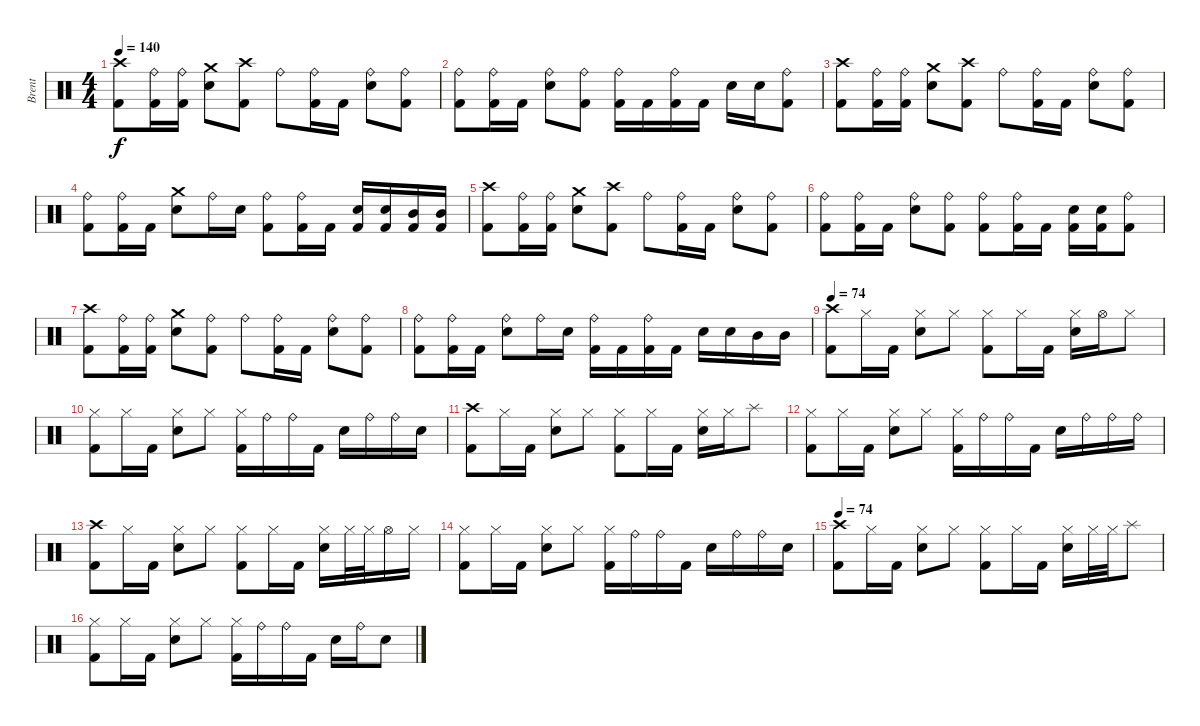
\track ("Brent" "Brent") {instrument percussion}
\staff {score}
\articulation defaults
\ts (4 4)
\tempo 140
\clef neutral
\ks c
("Crash high (hit)" "Kick (hit) 2").8{dy f} ("Ride (bell)" "Kick (hit) 2").16 ("Ride (bell)" "Kick (hit) 2").16 ("Crash medium (hit)" "Snare (hit) 2").8 ("Crash high (hit)" "Kick (hit) 2").8 "Ride (bell)".8 ("Ride (bell)" "Kick (hit) 2").16 "Kick (hit) 2".16 ("Ride (bell)" "Snare (hit) 2").8 ("Ride (bell)" "Kick (hit) 2").8 |
("Ride (bell)" "Kick (hit) 2").8 ("Ride (bell)" "Kick (hit) 2").16 "Kick (hit) 2".16 ("Ride (bell)" "Snare (hit) 2").8 ("Ride (bell)" "Kick (hit) 2").8 ("Ride (bell)" "Kick (hit) 2").16 "Kick (hit) 2".16 ("Ride (bell)" "Kick (hit) 2").16 "Kick (hit) 2".16 "Snare (hit) 2".16 "Snare (hit) 2".16 ("Ride (bell)" "Kick (hit) 2").8 |
("Crash high (hit)" "Kick (hit) 2").8 ("Ride (bell)" "Kick (hit) 2").16 ("Ride (bell)" "Kick (hit) 2").16 ("Crash medium (hit)" "Snare (hit) 2").8 ("Crash high (hit)" "Kick (hit) 2").8 "Ride (bell)".8 ("Ride (bell)" "Kick (hit) 2").16 "Kick (hit) 2".16 ("Ride (bell)" "Snare (hit) 2").8 ("Ride (bell)" "Kick (hit) 2").8 |
("Ride (bell)" "Kick (hit) 2").8 ("Ride (bell)" "Kick (hit) 2").16 "Kick (hit) 2".16 ("Crash medium (hit)" "Snare (hit) 2").8 "Ride (bell)".16 "Snare (hit) 2".16 ("Ride (bell)" "Kick (hit) 2").8 ("Ride (bell)" "Kick (hit) 2").16 "Kick (hit) 2".16 ("Snare (hit) 2" "Kick (hit) 2").16 ("Snare (hit) 2" "Kick (hit) 2").16 ("Mid Tom (hit)" "Kick (hit) 2").16 ("Mid Tom (hit)" "Kick (hit) 2").16 |
("Crash high (hit)" "Kick (hit) 2").8 ("Ride (bell)" "Kick (hit) 2").16 ("Ride (bell)" "Kick (hit) 2").16 ("Crash medium (hit)" "Snare (hit) 2").8 ("Crash high (hit)" "Kick (hit) 2").8 "Ride (bell)".8 ("Ride (bell)" "Kick (hit) 2").16 "Kick (hit) 2".16 ("Ride (bell)" "Snare (hit) 2").8 ("Ride (bell)" "Kick (hit) 2").8 |
("Ride (bell)" "Kick (hit) 2").8 ("Ride (bell)" "Kick (hit) 2").16 "Kick (hit) 2".16 ("Ride (bell)" "Snare (hit) 2").8 ("Ride (bell)" "Kick (hit) 2").8 ("Ride (bell)" "Kick (hit) 2").8 ("Ride (bell)" "Kick (hit) 2").16 "Kick (hit) 2".16 ("Snare (hit) 2" "Kick (hit) 2").16 ("Snare (hit) 2" "Kick (hit) 2").16 ("Ride (bell)" "Kick (hit) 2").8 |
("Crash high (hit)" "Kick (hit) 2").8 ("Ride (bell)" "Kick (hit) 2").16 ("Ride (bell)" "Kick (hit) 2").16 ("Crash medium (hit)" "Snare (hit) 2").8 ("Ride (bell)" "Kick (hit) 2").8 "Ride (bell)".8 ("Ride (bell)" "Kick (hit) 2").16 "Kick (hit) 2".16 ("Ride (bell)" "Snare (hit) 2").8 ("Ride (bell)" "Kick (hit) 2").8 |
("Ride (bell)" "Kick (hit) 2").8 ("Ride (bell)" "Kick (hit) 2").16 "Kick (hit) 2".16 ("Ride (bell)" "Snare (hit) 2").8 "Ride (bell)".16 "Snare (hit) 2".16 ("Ride (bell)" "Kick (hit) 2").16 "Kick (hit) 2".16 ("Ride (bell)" "Kick (hit) 2").16 "Kick (hit) 2".16 "Snare (hit) 2".16 "Snare (hit) 2".16 "Mid Tom (hit)".16 "Mid Tom (hit)".16 |
\tempo 74
("Crash high (hit)" "Kick (hit) 2").8 "Hi-Hat (closed)".16 "Kick (hit) 2".16 ("Hi-Hat (closed)" "Snare (hit) 2").8 "Hi-Hat (closed)".8 ("Hi-Hat (closed)" "Kick (hit) 2").8 "Hi-Hat (closed)".16 "Kick (hit) 2".16 ("Hi-Hat (closed)" "Snare (hit) 2").16 "Hi-Hat (open)".16 "Hi-Hat (closed)".8 |
("Hi-Hat (closed)" "Kick (hit) 2").8 "Hi-Hat (closed)".16 "Kick (hit) 2".16 ("Hi-Hat (closed)" "Snare (hit) 2").8 "Hi-Hat (closed)".8 ("Hi-Hat (closed)" "Kick (hit) 2").16 "Ride (bell)".16 "Ride (bell)".16 "Kick (hit) 2".16 "Snare (hit) 2".16 "Ride (bell)".16 "Ride (bell)".16 "Snare (hit) 2".16 |
("Crash high (hit)" "Kick (hit) 2").8 "Hi-Hat (closed)".16 "Kick (hit) 2".16 ("Hi-Hat (closed)" "Snare (hit) 2").8 "Hi-Hat (closed)".8 ("Hi-Hat (closed)" "Kick (hit) 2").8 "Hi-Hat (closed)".16 "Kick (hit) 2".16 ("Hi-Hat (closed)" "Snare (hit) 2").16 "Hi-Hat (closed)".16 "Splash (hit)".8 |
("Hi-Hat (closed)" "Kick (hit) 2").8 "Hi-Hat (closed)".16 "Kick (hit) 2".16 ("Hi-Hat (closed)" "Snare (hit) 2").8 "Hi-Hat (closed)".8 ("Hi-Hat (closed)" "Kick (hit) 2").16 "Ride (bell)".16 "Ride (bell)".16 "Kick (hit) 2".16 "Snare (hit) 2".16 "Ride (bell)".16 "Ride (bell)".16 "Ride (bell)".16 |
("Crash high (hit)" "Kick (hit) 2").8 "Hi-Hat (closed)".16 "Kick (hit) 2".16 ("Hi-Hat (closed)" "Snare (hit) 2").8 "Hi-Hat (closed)".8 ("Hi-Hat (closed)" "Kick (hit) 2").8 "Hi-Hat (closed)".16 "Kick (hit) 2".16 ("Hi-Hat (closed)" "Snare (hit) 2").16 "Hi-Hat (closed)".32 "Hi-Hat (closed)".32 "Hi-Hat (open)".16 "Hi-Hat (closed)".16 |
("Hi-Hat (closed)" "Kick (hit) 2").8 "Hi-Hat (closed)".16 "Kick (hit) 2".16 ("Hi-Hat (closed)" "Snare (hit) 2").8 "Hi-Hat (closed)".8 ("Hi-Hat (closed)" "Kick (hit) 2").16 "Ride (bell)".16 "Ride (bell)".16 "Kick (hit) 2".16 "Snare (hit) 2".16 "Ride (bell)".16 "Ride (bell)".16 "Snare (hit) 2".16 |
\tempo 74
("Crash high (hit)" "Kick (hit) 2").8 "Hi-Hat (closed)".16 "Kick (hit) 2".16 ("Hi-Hat (closed)" "Snare (hit) 2").8 "Hi-Hat (closed)".8 ("Hi-Hat (closed)" "Kick (hit) 2").8 "Hi-Hat (closed)".16 "Kick (hit) 2".16 ("Hi-Hat (closed)" "Snare (hit) 2").16 "Hi-Hat (closed)".32 "Hi-Hat (closed)".32 "Splash (hit)".8 |
("Hi-Hat (closed)" "Kick (hit) 2").8 "Hi-Hat (closed)".16 "Kick (hit) 2".16 ("Hi-Hat (closed)" "Snare (hit) 2").8 "Hi-Hat (closed)".8 ("Hi-Hat (closed)" "Kick (hit) 2").16 "Ride (bell)".16 "Ride (bell)".16 "Kick (hit) 2".16 "Snare (hit) 2".16 "Ride (bell)".16 "Snare (hit) 2".8
